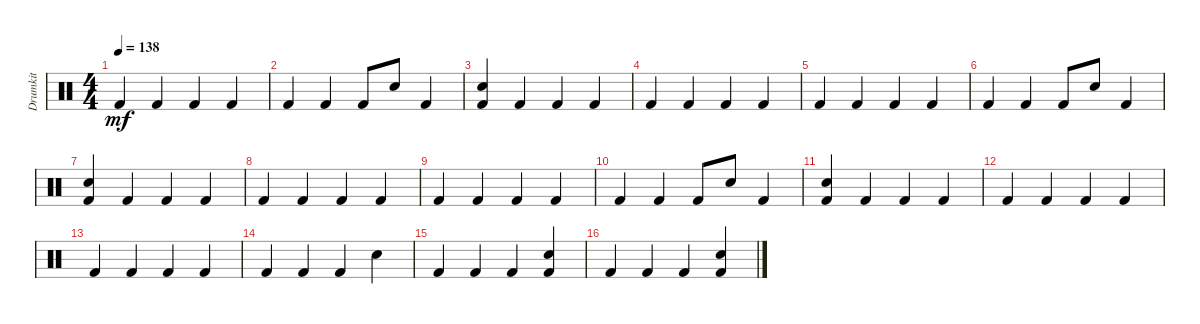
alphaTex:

\track ("Drumkit" "Drumkit") {instrument percussion}
\staff {score}
\articulation defaults
\ts (4 4)
\tempo 138
\clef neutral
\ks c "Kick (hit) 2".4{dy mf} "Kick (hit) 2".4 "Kick (hit) 2".4 "Kick (hit) 2".4
|
"Kick (hit) 2".4 "Kick (hit) 2".4 "Kick (hit) 2".8 "Snare (hit) 2".8 "Kick (hit) 2".4 |
("Kick (hit) 2" "Snare (hit) 2").4 "Kick (hit) 2".4 "Kick (hit) 2".4 "Kick (hit) 2".4 |
"Kick (hit) 2".4 "Kick (hit) 2".4 "Kick (hit) 2".4 "Kick (hit) 2".4 |
"Kick (hit) 2".4 "Kick (hit) 2".4 "Kick (hit) 2".4 "Kick (hit) 2".4 |
"Kick (hit) 2".4 "Kick (hit) 2".4 "Kick (hit) 2".8 "Snare (hit) 2".8 "Kick (hit) 2".4 |
("Kick (hit) 2" "Snare (hit) 2").4 "Kick (hit) 2".4 "Kick (hit) 2".4 "Kick (hit) 2".4 |
"Kick (hit) 2".4 "Kick (hit) 2".4 "Kick (hit) 2".4 "Kick (hit) 2".4 |
"Kick (hit) 2".4 "Kick (hit) 2".4 "Kick (hit) 2".4 "Kick (hit) 2".4 |
"Kick (hit) 2".4 "Kick (hit) 2".4 "Kick (hit) 2".8 "Snare (hit) 2".8 "Kick (hit) 2".4 |
("Kick (hit) 2" "Snare (hit) 2").4 "Kick (hit) 2".4 "Kick (hit) 2".4 "Kick (hit) 2".4 |
"Kick (hit) 2".4 "Kick (hit) 2".4 "Kick (hit) 2".4 "Kick (hit) 2".4 |
"Kick (hit) 2".4 "Kick (hit) 2".4 "Kick (hit) 2".4 "Kick (hit) 2".4 |
"Kick (hit) 2".4 "Kick (hit) 2".4 "Kick (hit) 2".4 "Snare (hit) 2".4 |
"Kick (hit) 2".4 "Kick (hit) 2".4 "Kick (hit) 2".4 ("Kick (hit) 2" "Snare (hit) 2").4 |
"Kick (hit) 2".4 "Kick (hit) 2".4 "Kick (hit) 2".4 ("Kick (hit) 2" "Snare (hit) 2").4
